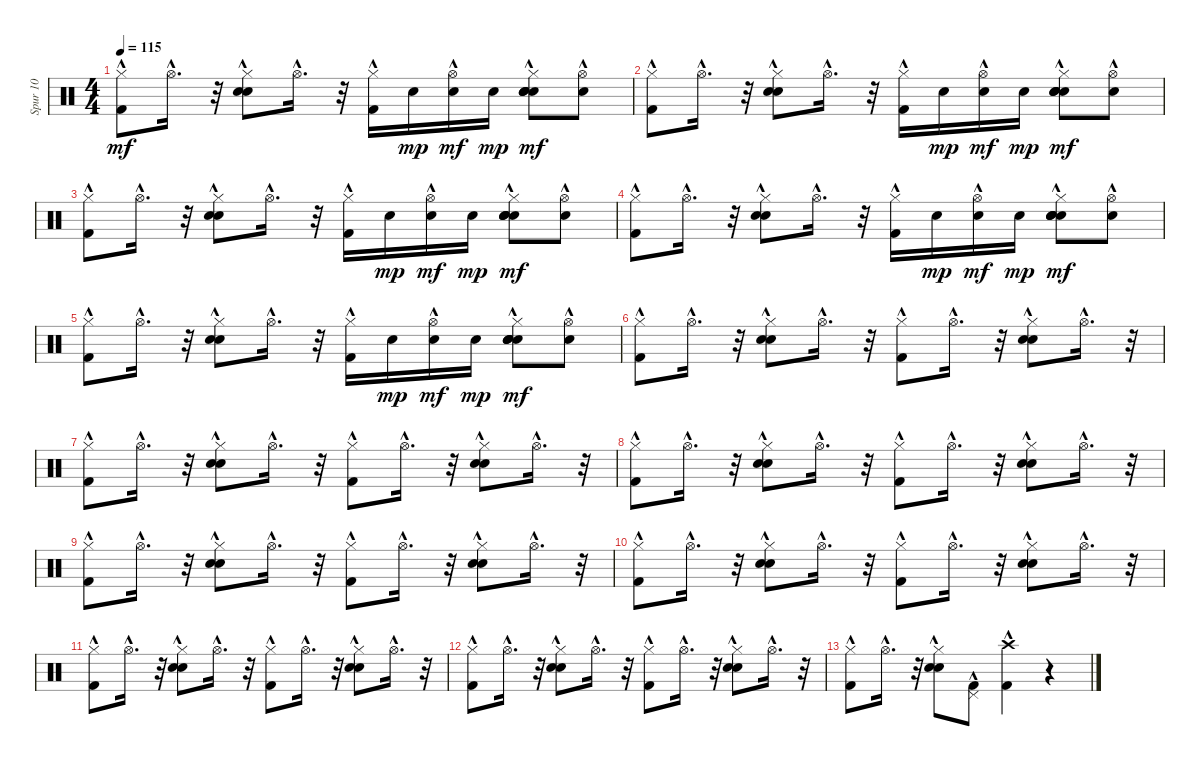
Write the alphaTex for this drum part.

\track ("Spur 10" "Spur 10") {instrument percussion}
\staff {score}
\articulation defaults
\ts (4 4)
\tempo 115
\clef neutral
\ks c
("Hi-Hat (closed)"{hac} "Kick (hit) 2"{hac}).8{dy mf} "Hi-Hat (open)"{hac}.16{d} r.32 ("Hi-Hat (closed)"{hac} "Snare (hit) 2"{hac} "Hand Clap (hit)"{hac}).8 "Hi-Hat (open)"{hac}.16{d} r.32 ("Hi-Hat (closed)"{hac} "Kick (hit) 2"{hac}).16 "Snare (hit) 2".16{dy mp} ("Snare (hit) 2" "Hi-Hat (open)"{hac}).16{dy mf} "Snare (hit) 2".16{dy mp} ("Snare (hit) 2" "Snare (hit) 2" "Hi-Hat (closed)"{hac} "Snare (hit) 2" "Hand Clap (hit)"{hac}).8{dy mf} ("Snare (hit) 2" "Hi-Hat (open)"{hac}).8 |
("Hi-Hat (closed)"{hac} "Kick (hit) 2"{hac}).8 "Hi-Hat (open)"{hac}.16{d} r.32 ("Hi-Hat (closed)"{hac} "Hand Clap (hit)"{hac} "Snare (hit) 2"{hac}).8 "Hi-Hat (open)"{hac}.16{d} r.32 ("Hi-Hat (closed)"{hac} "Kick (hit) 2"{hac}).16 "Snare (hit) 2".16{dy mp} ("Snare (hit) 2" "Hi-Hat (open)"{hac}).16{dy mf} "Snare (hit) 2".16{dy mp} ("Snare (hit) 2" "Snare (hit) 2" "Hi-Hat (closed)"{hac} "Snare (hit) 2" "Hand Clap (hit)"{hac}).8{dy mf} ("Snare (hit) 2" "Hi-Hat (open)"{hac}).8 |
("Hi-Hat (closed)"{hac} "Kick (hit) 2"{hac}).8 "Hi-Hat (open)"{hac}.16{d} r.32 ("Hi-Hat (closed)"{hac} "Snare (hit) 2"{hac} "Hand Clap (hit)"{hac}).8 "Hi-Hat (open)"{hac}.16{d} r.32 ("Hi-Hat (closed)"{hac} "Kick (hit) 2"{hac}).16 "Snare (hit) 2".16{dy mp} ("Snare (hit) 2" "Hi-Hat (open)"{hac}).16{dy mf} "Snare (hit) 2".16{dy mp} ("Snare (hit) 2" "Snare (hit) 2" "Hi-Hat (closed)"{hac} "Snare (hit) 2" "Hand Clap (hit)"{hac}).8{dy mf} ("Snare (hit) 2" "Hi-Hat (open)"{hac}).8 |
("Hi-Hat (closed)"{hac} "Kick (hit) 2"{hac}).8 "Hi-Hat (open)"{hac}.16{d} r.32 ("Hi-Hat (closed)"{hac} "Hand Clap (hit)"{hac} "Snare (hit) 2"{hac}).8 "Hi-Hat (open)"{hac}.16{d} r.32 ("Hi-Hat (closed)"{hac} "Kick (hit) 2"{hac}).16 "Snare (hit) 2".16{dy mp} ("Snare (hit) 2" "Hi-Hat (open)"{hac}).16{dy mf} "Snare (hit) 2".16{dy mp} ("Snare (hit) 2" "Snare (hit) 2" "Hi-Hat (closed)"{hac} "Snare (hit) 2" "Hand Clap (hit)"{hac}).8{dy mf} ("Snare (hit) 2" "Hi-Hat (open)"{hac}).8 |
("Hi-Hat (closed)"{hac} "Kick (hit) 2"{hac}).8 "Hi-Hat (open)"{hac}.16{d} r.32 ("Hi-Hat (closed)"{hac} "Snare (hit) 2"{hac} "Hand Clap (hit)"{hac}).8 "Hi-Hat (open)"{hac}.16{d} r.32 ("Hi-Hat (closed)"{hac} "Kick (hit) 2"{hac}).16 "Snare (hit) 2".16{dy mp} ("Snare (hit) 2" "Hi-Hat (open)"{hac}).16{dy mf} "Snare (hit) 2".16{dy mp} ("Snare (hit) 2" "Snare (hit) 2" "Hi-Hat (closed)"{hac} "Snare (hit) 2" "Hand Clap (hit)"{hac}).8{dy mf} ("Snare (hit) 2" "Hi-Hat (open)"{hac}).8 |
("Hi-Hat (closed)"{hac} "Kick (hit) 2"{hac}).8 "Hi-Hat (open)"{hac}.16{d} r.32 ("Hi-Hat (closed)"{hac} "Hand Clap (hit)"{hac} "Snare (hit) 2"{hac}).8 "Hi-Hat (open)"{hac}.16{d} r.32 ("Hi-Hat (closed)"{hac} "Kick (hit) 2"{hac}).8 "Hi-Hat (open)"{hac}.16{d} r.32 ("Hi-Hat (closed)"{hac} "Snare (hit) 2"{hac} "Hand Clap (hit)"{hac}).8 "Hi-Hat (open)"{hac}.16{d} r.32 |
("Hi-Hat (closed)"{hac} "Kick (hit) 2"{hac}).8 "Hi-Hat (open)"{hac}.16{d} r.32 ("Hi-Hat (closed)"{hac} "Snare (hit) 2"{hac} "Hand Clap (hit)"{hac}).8 "Hi-Hat (open)"{hac}.16{d} r.32 ("Hi-Hat (closed)"{hac} "Kick (hit) 2"{hac}).8 "Hi-Hat (open)"{hac}.16{d} r.32 ("Hi-Hat (closed)"{hac} "Snare (hit) 2"{hac} "Hand Clap (hit)"{hac}).8 "Hi-Hat (open)"{hac}.16{d} r.32 |
("Hi-Hat (closed)"{hac} "Kick (hit) 2"{hac}).8 "Hi-Hat (open)"{hac}.16{d} r.32 ("Hi-Hat (closed)"{hac} "Hand Clap (hit)"{hac} "Snare (hit) 2"{hac}).8 "Hi-Hat (open)"{hac}.16{d} r.32 ("Hi-Hat (closed)"{hac} "Kick (hit) 2"{hac}).8 "Hi-Hat (open)"{hac}.16{d} r.32 ("Hi-Hat (closed)"{hac} "Snare (hit) 2"{hac} "Hand Clap (hit)"{hac}).8 "Hi-Hat (open)"{hac}.16{d} r.32 |
("Hi-Hat (closed)"{hac} "Kick (hit) 2"{hac}).8 "Hi-Hat (open)"{hac}.16{d} r.32 ("Hi-Hat (closed)"{hac} "Snare (hit) 2"{hac} "Hand Clap (hit)"{hac}).8 "Hi-Hat (open)"{hac}.16{d} r.32 ("Hi-Hat (closed)"{hac} "Kick (hit) 2"{hac}).8 "Hi-Hat (open)"{hac}.16{d} r.32 ("Hi-Hat (closed)"{hac} "Snare (hit) 2"{hac} "Hand Clap (hit)"{hac}).8 "Hi-Hat (open)"{hac}.16{d} r.32 |
("Hi-Hat (closed)"{hac} "Kick (hit) 2"{hac}).8 "Hi-Hat (open)"{hac}.16{d} r.32 ("Hi-Hat (closed)"{hac} "Hand Clap (hit)"{hac} "Snare (hit) 2"{hac}).8 "Hi-Hat (open)"{hac}.16{d} r.32 ("Hi-Hat (closed)"{hac} "Kick (hit) 2"{hac}).8 "Hi-Hat (open)"{hac}.16{d} r.32 ("Hi-Hat (closed)"{hac} "Snare (hit) 2"{hac} "Hand Clap (hit)"{hac}).8 "Hi-Hat (open)"{hac}.16{d} r.32 |
("Hi-Hat (closed)"{hac} "Kick (hit) 2"{hac}).8 "Hi-Hat (open)"{hac}.16{d} r.32 ("Hi-Hat (closed)"{hac} "Snare (hit) 2"{hac} "Hand Clap (hit)"{hac}).8 "Hi-Hat (open)"{hac}.16{d} r.32 ("Hi-Hat (closed)"{hac} "Kick (hit) 2"{hac}).8 "Hi-Hat (open)"{hac}.16{d} r.32 ("Hi-Hat (closed)"{hac} "Snare (hit) 2"{hac} "Hand Clap (hit)"{hac}).8 "Hi-Hat (open)"{hac}.16{d} r.32 |
("Hi-Hat (closed)"{hac} "Kick (hit) 2"{hac}).8 "Hi-Hat (open)"{hac}.16{d} r.32 ("Hi-Hat (closed)"{hac} "Hand Clap (hit)"{hac} "Snare (hit) 2"{hac}).8 "Hi-Hat (open)"{hac}.16{d} r.32 ("Hi-Hat (closed)"{hac} "Kick (hit) 2"{hac}).8 "Hi-Hat (open)"{hac}.16{d} r.32 ("Hi-Hat (closed)"{hac} "Snare (hit) 2"{hac} "Hand Clap (hit)"{hac}).8 "Hi-Hat (open)"{hac}.16{d} r.32 |
("Hi-Hat (closed)"{hac} "Kick (hit) 2"{hac}).8 "Hi-Hat (open)"{hac}.16{d} r.32 ("Hi-Hat (closed)"{hac} "Snare (hit) 2"{hac} "Hand Clap (hit)"{hac}).8 ("Pedal Hi-Hat (hit)"{hac} "Kick (hit) 2").8 ("Crash high (hit)" "Kick (hit) 2"{hac}).4 r.4
